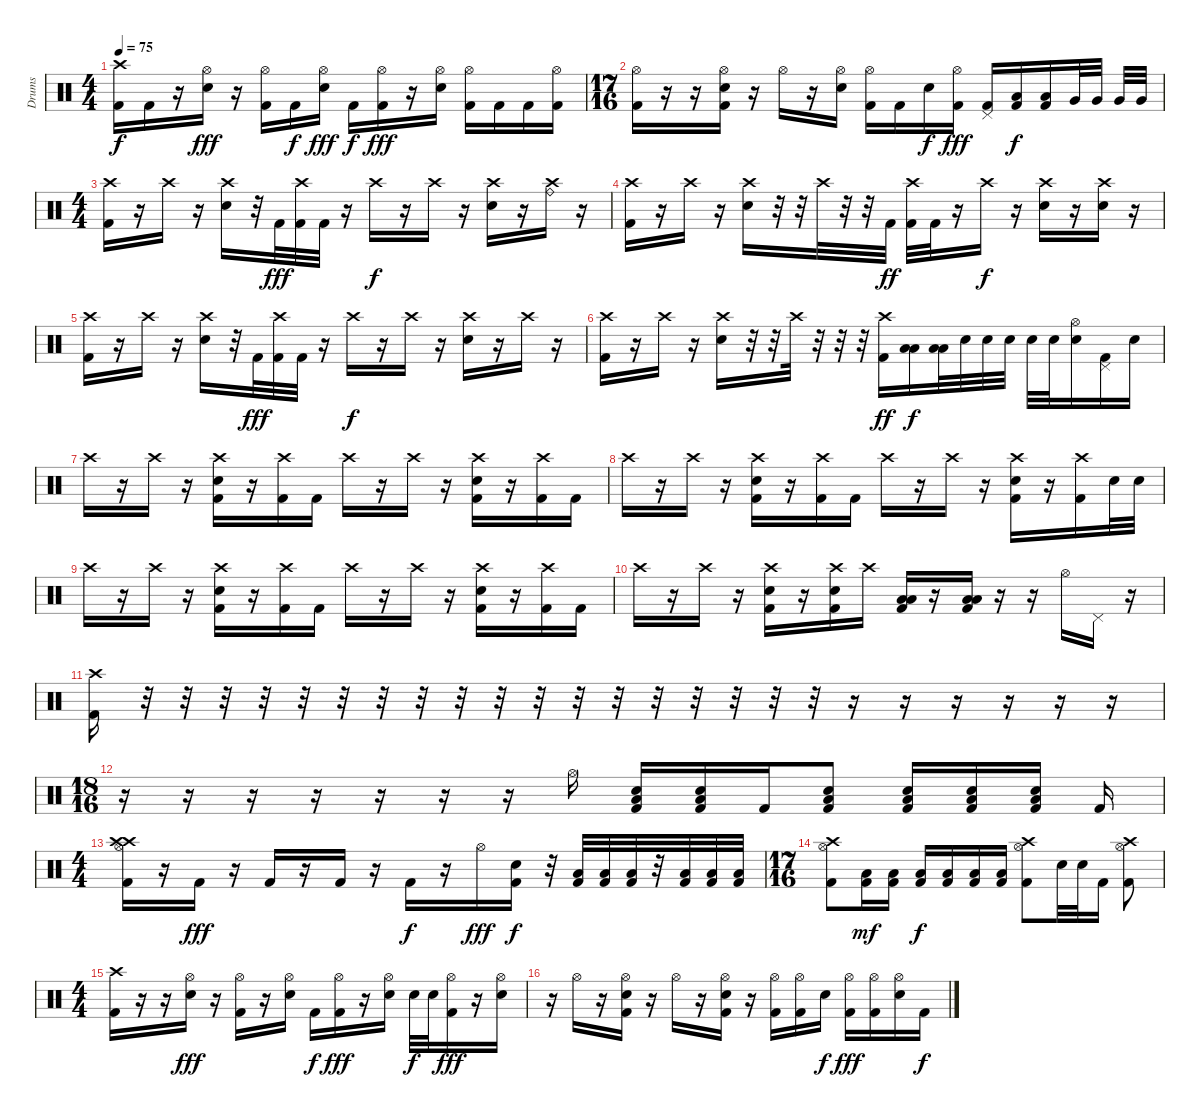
\track ("Drums" "Drums") {instrument percussion}
\staff {score}
\articulation defaults
\ts (4 4)
\tempo 75
\clef neutral
\ks c
("Crash high (hit)" "Kick (hit) 2").16{dy f} "Kick (hit) 2".16 r.16 ("Hi-Hat (open)" "Electric Snare (hit)").16{dy fff} r.16 ("Hi-Hat (open)" "Kick (hit) 2").16 "Kick (hit) 2".16{dy f} ("Hi-Hat (open)" "Electric Snare (hit)").16{dy fff} "Kick (hit) 2".16{dy f} ("Hi-Hat (open)" "Kick (hit) 2").16{dy fff} r.16 ("Hi-Hat (open)" "Electric Snare (hit)").16 ("Hi-Hat (open)" "Kick (hit) 2").16 "Kick (hit) 2".16 "Kick (hit) 2".16 ("Hi-Hat (open)" "Kick (hit) 2").16 |
\ts (17 16)
("Hi-Hat (open)" "Kick (hit) 2").16 r.16 r.16 ("Hi-Hat (open)" "Electric Snare (hit)" "Kick (hit) 2").16 r.16 "Hi-Hat (open)".16 r.16 ("Hi-Hat (open)" "Electric Snare (hit)").16 ("Hi-Hat (open)" "Kick (hit) 2").16 "Kick (hit) 2".16 "Electric Snare (hit)".16{dy f} ("Hi-Hat (open)" "Kick (hit) 2").16{dy fff} ("Pedal Hi-Hat (hit)" "Kick (hit) 2").16 ("Low Tom (hit)" "Kick (hit) 2").16{dy f} ("Low Tom (hit)" "Kick (hit) 2").16 "Very Low Tom (hit)".32 "Very Low Tom (hit)".32 "Very Low Tom (hit)".32 "Very Low Tom (hit)".32 |
\ts (4 4)
("Crash high (hit)" "Kick (hit) 2").16 r.16 "Crash high (hit)".16 r.16 ("Crash high (hit)" "Electric Snare (hit)").16 r.32 "Kick (hit) 2".32{dy fff} ("Crash high (hit)" "Kick (hit) 2").32 "Kick (hit) 2".32 r.16 "Crash high (hit)".16{dy f} r.16 "Crash high (hit)".16 r.16 ("Crash high (hit)" "Electric Snare (hit)").16 r.16 ("Crash high (hit)" "Ride (bell)").16 r.16 |
("Crash high (hit)" "Kick (hit) 2").16 r.16 "Crash high (hit)".16 r.16 ("Crash high (hit)" "Electric Snare (hit)").16 r.32 r.32 "Crash high (hit)".32 r.32 r.32 "Kick (hit) 2".32{dy ff} ("Crash high (hit)" "Kick (hit) 2").32 "Kick (hit) 2".32 r.16 "Crash high (hit)".16{dy f} r.16 ("Crash high (hit)" "Electric Snare (hit)").16 r.16 ("Crash high (hit)" "Electric Snare (hit)").16 r.16 |
("Crash high (hit)" "Kick (hit) 2").16 r.16 "Crash high (hit)".16 r.16 ("Crash high (hit)" "Electric Snare (hit)").16 r.32 "Kick (hit) 2".32{dy fff} ("Crash high (hit)" "Kick (hit) 2").32 "Kick (hit) 2".32 r.16 "Crash high (hit)".16{dy f} r.16 "Crash high (hit)".16 r.16 ("Crash high (hit)" "Electric Snare (hit)").16 r.16 "Crash high (hit)".16 r.16 |
("Crash high (hit)" "Kick (hit) 2").16 r.16 "Crash high (hit)".16 r.16 ("Crash high (hit)" "Electric Snare (hit)").16 r.32 r.32 "Crash high (hit)".32 r.32 r.32 r.32 ("Crash high (hit)" "Kick (hit) 2").16{dy ff} ("Low Tom (hit)" "Low Tom (hit)").16{dy f} ("Low Tom (hit)" "Low Tom (hit)").32 "Electric Snare (hit)".32 "Electric Snare (hit)".32 "Electric Snare (hit)".32 "Electric Snare (hit)".32 "Electric Snare (hit)".32 ("Hi-Hat (open)" "Electric Snare (hit)").16 ("Pedal Hi-Hat (hit)" "Kick (hit) 2").16 "Electric Snare (hit)".16 |
"Crash high (hit)".16 r.16 "Crash high (hit)".16 r.16 ("Crash high (hit)" "Electric Snare (hit)" "Kick (hit) 2").16 r.16 ("Crash high (hit)" "Kick (hit) 2").16 "Kick (hit) 2".16 "Crash high (hit)".16 r.16 "Crash high (hit)".16 r.16 ("Crash high (hit)" "Electric Snare (hit)" "Kick (hit) 2").16 r.16 ("Crash high (hit)" "Kick (hit) 2").16 "Kick (hit) 2".16 |
"Crash high (hit)".16 r.16 "Crash high (hit)".16 r.16 ("Crash high (hit)" "Electric Snare (hit)" "Kick (hit) 2").16 r.16 ("Crash high (hit)" "Kick (hit) 2").16 "Kick (hit) 2".16 "Crash high (hit)".16 r.16 "Crash high (hit)".16 r.16 ("Crash high (hit)" "Electric Snare (hit)" "Kick (hit) 2").16 r.16 ("Crash high (hit)" "Kick (hit) 2").16 "Electric Snare (hit)".32 "Electric Snare (hit)".32 |
"Crash high (hit)".16 r.16 "Crash high (hit)".16 r.16 ("Crash high (hit)" "Electric Snare (hit)" "Kick (hit) 2").16 r.16 ("Crash high (hit)" "Kick (hit) 2").16 "Kick (hit) 2".16 "Crash high (hit)".16 r.16 "Crash high (hit)".16 r.16 ("Crash high (hit)" "Electric Snare (hit)" "Kick (hit) 2").16 r.16 ("Crash high (hit)" "Kick (hit) 2").16 "Kick (hit) 2".16 |
"Crash high (hit)".16 r.16 "Crash high (hit)".16 r.16 ("Crash high (hit)" "Electric Snare (hit)" "Kick (hit) 2").16 r.16 ("Crash high (hit)" "Electric Snare (hit)" "Kick (hit) 2").16 "Crash high (hit)".16 ("Low Tom (hit)" "Low Tom (hit)" "Kick (hit) 2").16 r.16 ("Low Tom (hit)" "Low Tom (hit)" "Kick (hit) 2").16 r.16 r.16 "Hi-Hat (open)".16 "Pedal Hi-Hat (hit)".16 r.16 |
("Crash high (hit)" "Kick (hit) 2").16 r.32 r.32 r.32 r.32 r.32 r.32 r.32 r.32 r.32 r.32 r.32 r.32 r.32 r.32 r.32 r.32 r.32 r.32 r.16 r.16 r.16 r.16 r.16 r.16 |
\ts (18 16)
r.16 r.16 r.16 r.16 r.16 r.16 r.16 "Hi-Hat (open)".16 ("Low Tom (hit)" "Electric Snare (hit)" "Kick (hit) 2").16 ("Low Tom (hit)" "Electric Snare (hit)" "Kick (hit) 2").16 "Kick (hit) 2".16 ("Low Tom (hit)" "Electric Snare (hit)" "Kick (hit) 2").8 ("Low Tom (hit)" "Electric Snare (hit)" "Kick (hit) 2").16 ("Low Tom (hit)" "Electric Snare (hit)" "Kick (hit) 2").16 ("Low Tom (hit)" "Electric Snare (hit)" "Kick (hit) 2").16 "Kick (hit) 2".16 |
\ts (4 4)
("Crash high (hit)" "Crash high (hit)" "Hi-Hat (open)" "Kick (hit) 2").16 r.16 "Kick (hit) 2".16{dy fff} r.16 "Kick (hit) 2".16 r.16 "Kick (hit) 2".16 r.16 "Kick (hit) 2".16{dy f} r.16 "Hi-Hat (open)".16{dy fff} ("Electric Snare (hit)" "Kick (hit) 2").16{dy f} r.32 ("Low Tom (hit)" "Kick (hit) 2").32 ("Low Tom (hit)" "Kick (hit) 2").32 ("Low Tom (hit)" "Kick (hit) 2").32 r.32 ("Low Tom (hit)" "Kick (hit) 2").32 ("Low Tom (hit)" "Kick (hit) 2").32 ("Low Tom (hit)" "Kick (hit) 2").32 |
\ts (17 16)
("Crash high (hit)" "Hi-Hat (open)" "Kick (hit) 2").8 ("Low Tom (hit)" "Kick (hit) 2").16{dy mf} ("Low Tom (hit)" "Kick (hit) 2").16 ("Low Tom (hit)" "Kick (hit) 2").16{dy f} ("Low Tom (hit)" "Kick (hit) 2").16 ("Low Tom (hit)" "Kick (hit) 2").16 ("Low Tom (hit)" "Kick (hit) 2").16 ("Crash high (hit)" "Hi-Hat (open)" "Kick (hit) 2").8 "Electric Snare (hit)".32 "Electric Snare (hit)".32 "Kick (hit) 2".16 ("Crash high (hit)" "Hi-Hat (open)" "Kick (hit) 2").8 |
\ts (4 4)
("Crash high (hit)" "Kick (hit) 2").16 r.16 r.16 ("Hi-Hat (open)" "Electric Snare (hit)").16{dy fff} r.16 ("Hi-Hat (open)" "Kick (hit) 2").16 r.16 ("Hi-Hat (open)" "Electric Snare (hit)").16 "Kick (hit) 2".16{dy f} ("Hi-Hat (open)" "Kick (hit) 2").16{dy fff} r.16 ("Hi-Hat (open)" "Electric Snare (hit)").16 "Electric Snare (hit)".32{dy f} "Electric Snare (hit)".32 ("Hi-Hat (open)" "Kick (hit) 2").16{dy fff} r.16 ("Hi-Hat (open)" "Electric Snare (hit)").16 |
r.16 "Hi-Hat (open)".16 r.16 ("Hi-Hat (open)" "Electric Snare (hit)" "Kick (hit) 2").16 r.16 "Hi-Hat (open)".16 r.16 ("Hi-Hat (open)" "Electric Snare (hit)" "Kick (hit) 2").16 r.16 ("Hi-Hat (open)" "Kick (hit) 2").16 ("Hi-Hat (open)" "Kick (hit) 2").16 "Electric Snare (hit)".16{dy f} ("Hi-Hat (open)" "Kick (hit) 2").16{dy fff} ("Hi-Hat (open)" "Kick (hit) 2").16 ("Hi-Hat (open)" "Electric Snare (hit)").16 "Kick (hit) 2".16{dy f}
